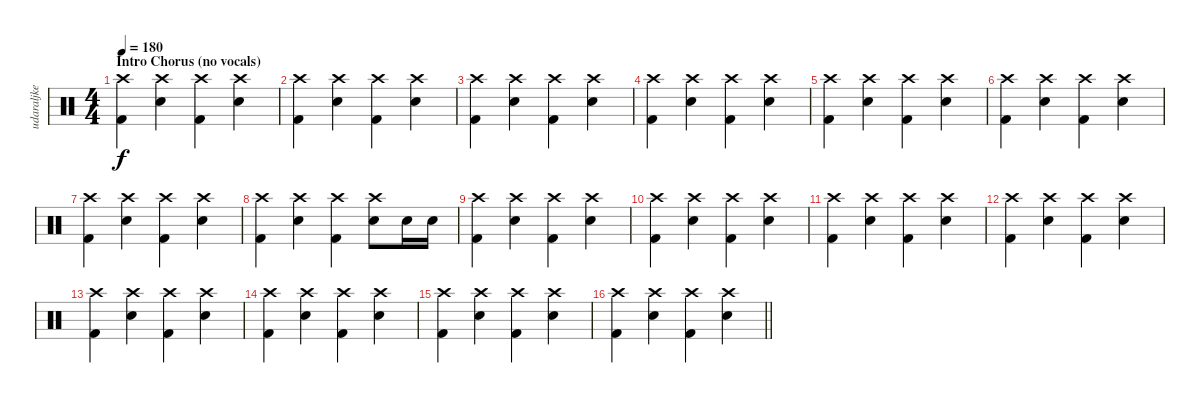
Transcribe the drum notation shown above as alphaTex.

\track ("udaraljke" "udaraljke") {instrument percussion}
\staff {score}
\articulation defaults
\ts (4 4)
\section ("" "Intro Chorus (no vocals)")
\tempo 180
\clef neutral
\ks c
("Crash high (hit)" "Kick (hit) 2").4{dy f} ("Crash high (hit)" "Snare (hit) 2").4 ("Crash high (hit)" "Kick (hit) 2").4 ("Crash high (hit)" "Snare (hit) 2").4 |
("Crash high (hit)" "Kick (hit) 2").4 ("Crash high (hit)" "Snare (hit) 2").4 ("Crash high (hit)" "Kick (hit) 2").4 ("Crash high (hit)" "Snare (hit) 2").4 |
("Crash high (hit)" "Kick (hit) 2").4 ("Crash high (hit)" "Snare (hit) 2").4 ("Crash high (hit)" "Kick (hit) 2").4 ("Crash high (hit)" "Snare (hit) 2").4 |
("Crash high (hit)" "Kick (hit) 2").4 ("Crash high (hit)" "Snare (hit) 2").4 ("Crash high (hit)" "Kick (hit) 2").4 ("Crash high (hit)" "Snare (hit) 2").4 |
("Crash high (hit)" "Kick (hit) 2").4 ("Crash high (hit)" "Snare (hit) 2").4 ("Crash high (hit)" "Kick (hit) 2").4 ("Crash high (hit)" "Snare (hit) 2").4 |
("Crash high (hit)" "Kick (hit) 2").4 ("Crash high (hit)" "Snare (hit) 2").4 ("Crash high (hit)" "Kick (hit) 2").4 ("Crash high (hit)" "Snare (hit) 2").4 |
("Crash high (hit)" "Kick (hit) 2").4 ("Crash high (hit)" "Snare (hit) 2").4 ("Crash high (hit)" "Kick (hit) 2").4 ("Crash high (hit)" "Snare (hit) 2").4 |
("Crash high (hit)" "Kick (hit) 2").4 ("Crash high (hit)" "Snare (hit) 2").4 ("Crash high (hit)" "Kick (hit) 2").4 ("Crash high (hit)" "Snare (hit) 2").8 "Snare (hit) 2".16 "Snare (hit) 2".16 |
("Crash high (hit)" "Kick (hit) 2").4 ("Crash high (hit)" "Snare (hit) 2").4 ("Crash high (hit)" "Kick (hit) 2").4 ("Crash high (hit)" "Snare (hit) 2").4 |
("Crash high (hit)" "Kick (hit) 2").4 ("Crash high (hit)" "Snare (hit) 2").4 ("Crash high (hit)" "Kick (hit) 2").4 ("Crash high (hit)" "Snare (hit) 2").4 |
("Crash high (hit)" "Kick (hit) 2").4 ("Crash high (hit)" "Snare (hit) 2").4 ("Crash high (hit)" "Kick (hit) 2").4 ("Crash high (hit)" "Snare (hit) 2").4 |
("Crash high (hit)" "Kick (hit) 2").4 ("Crash high (hit)" "Snare (hit) 2").4 ("Crash high (hit)" "Kick (hit) 2").4 ("Crash high (hit)" "Snare (hit) 2").4 |
("Crash high (hit)" "Kick (hit) 2").4 ("Crash high (hit)" "Snare (hit) 2").4 ("Crash high (hit)" "Kick (hit) 2").4 ("Crash high (hit)" "Snare (hit) 2").4 |
("Crash high (hit)" "Kick (hit) 2").4 ("Crash high (hit)" "Snare (hit) 2").4 ("Crash high (hit)" "Kick (hit) 2").4 ("Crash high (hit)" "Snare (hit) 2").4 |
("Crash high (hit)" "Kick (hit) 2").4 ("Crash high (hit)" "Snare (hit) 2").4 ("Crash high (hit)" "Kick (hit) 2").4 ("Crash high (hit)" "Snare (hit) 2").4 |
\barLineRight lightlight
("Crash high (hit)" "Kick (hit) 2").4 ("Crash high (hit)" "Snare (hit) 2").4 ("Crash high (hit)" "Kick (hit) 2").4 ("Crash high (hit)" "Snare (hit) 2").4
